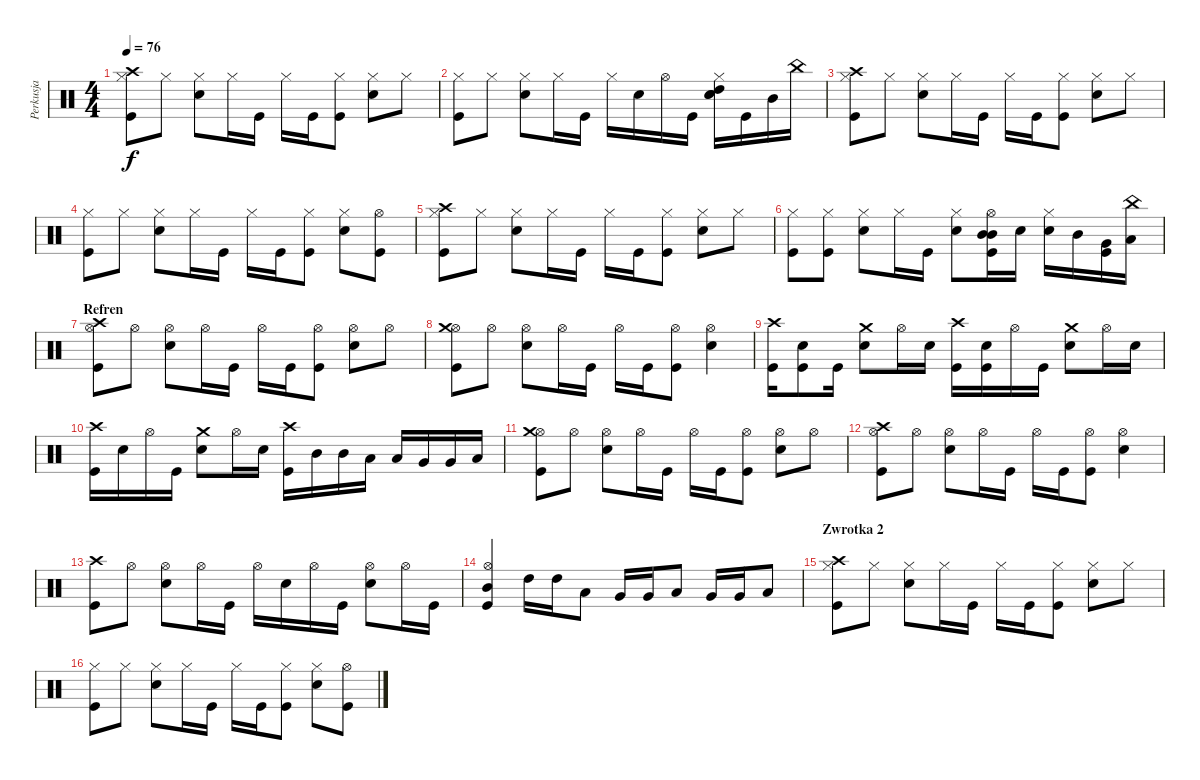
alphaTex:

\track ("Perkusja" "Perkusja") {instrument percussion}
\staff {score}
\articulation defaults
\ts (4 4)
\tempo 76
\clef neutral
\ks c
("Kick (hit)" "Hi-Hat (closed)" "Crash high (hit)").8{dy f} "Hi-Hat (closed)".8 ("Snare (hit) 2" "Hi-Hat (closed)").8 "Hi-Hat (closed)".16 "Kick (hit)".16 "Hi-Hat (closed)".16 "Kick (hit)".16 ("Kick (hit)" "Hi-Hat (closed)").8 ("Snare (hit) 2" "Hi-Hat (closed)").8 "Hi-Hat (closed)".8 |
("Kick (hit)" "Hi-Hat (closed)").8 "Hi-Hat (closed)".8 ("Snare (hit) 2" "Hi-Hat (closed)").8 "Hi-Hat (closed)".16 "Kick (hit)".16 "Hi-Hat (closed)".16 "Snare (hit) 2".16 "Hi-Hat (open)".16 "Kick (hit)".16 ("Snare (hit) 2" "Hi-Hat (closed)" "High Tom (hit)" "Snare (hit) 2").16 "Kick (hit)".16 "Mid Tom (hit)".16 "China (hit)".16 |
("Kick (hit)" "Hi-Hat (closed)" "Crash high (hit)").8 "Hi-Hat (closed)".8 ("Snare (hit) 2" "Hi-Hat (closed)").8 "Hi-Hat (closed)".16 "Kick (hit)".16 "Hi-Hat (closed)".16 "Kick (hit)".16 ("Kick (hit)" "Hi-Hat (closed)").8 ("Snare (hit) 2" "Hi-Hat (closed)").8 "Hi-Hat (closed)".8 |
("Kick (hit)" "Hi-Hat (closed)").8 "Hi-Hat (closed)".8 ("Snare (hit) 2" "Hi-Hat (closed)").8 "Hi-Hat (closed)".16 "Kick (hit)".16 "Hi-Hat (closed)".16 "Kick (hit)".16 ("Kick (hit)" "Hi-Hat (closed)").8 ("Snare (hit) 2" "Hi-Hat (closed)").8 ("Kick (hit)" "Hi-Hat (open)").8 |
("Kick (hit)" "Hi-Hat (closed)" "Crash high (hit)").8 "Hi-Hat (closed)".8 ("Snare (hit) 2" "Hi-Hat (closed)").8 "Hi-Hat (closed)".16 "Kick (hit)".16 "Hi-Hat (closed)".16 "Kick (hit)".16 ("Kick (hit)" "Hi-Hat (closed)").8 ("Snare (hit) 2" "Hi-Hat (closed)").8 "Hi-Hat (closed)".8 |
("Kick (hit)" "Hi-Hat (closed)").8 ("Kick (hit)" "Hi-Hat (closed)").8 ("Snare (hit) 2" "Hi-Hat (closed)").8 "Hi-Hat (closed)".16 "Kick (hit)".16 ("Snare (hit) 2" "Hi-Hat (closed)").8 ("Mid Tom (hit)" "Kick (hit)" "Hi-Hat (open)" "Mid Tom (hit)").16 "Snare (hit) 2".16 ("Snare (hit) 2" "Hi-Hat (closed)").16 "Mid Tom (hit)".16 ("Kick (hit)" "Very Low Tom (hit)").16 ("Low Floor Tom (hit)" "China (hit)").16 |
\section ("" "Refren ")
("Kick (hit)" "Hi-Hat (open)" "Crash high (hit)").8 "Hi-Hat (open)".8 ("Snare (hit) 2" "Hi-Hat (open)").8 "Hi-Hat (open)".16 "Kick (hit)".16 "Hi-Hat (open)".16 "Kick (hit)".16 ("Kick (hit)" "Hi-Hat (open)").8 ("Snare (hit) 2" "Hi-Hat (open)").8 "Hi-Hat (open)".8 |
("Kick (hit)" "Hi-Hat (open)" "Crash medium (hit)").8 "Hi-Hat (open)".8 ("Snare (hit) 2" "Hi-Hat (open)").8 "Hi-Hat (open)".16 "Kick (hit)".16 "Hi-Hat (open)".16 "Kick (hit)".16 ("Kick (hit)" "Hi-Hat (open)").8 ("Snare (hit) 2" "Hi-Hat (open)").4 |
("Kick (hit)" "Crash high (hit)").16 ("Kick (hit)" "Snare (hit) 2").8 "Kick (hit)".16 ("Snare (hit) 2" "Crash medium (hit)").8 "Hi-Hat (open)".16 "Snare (hit) 2".16 ("Kick (hit)" "Crash high (hit)").16 ("Kick (hit)" "Snare (hit) 2").16 "Hi-Hat (open)".16 "Kick (hit)".16 ("Snare (hit) 2" "Crash medium (hit)").8 "Hi-Hat (open)".16 "Snare (hit) 2".16 |
("Kick (hit)" "Crash high (hit)").16 "Snare (hit) 2".16 "Hi-Hat (open)".16 "Kick (hit)".16 ("Snare (hit) 2" "Crash medium (hit)").8 "Hi-Hat (open)".16 "Snare (hit) 2".16 ("Kick (hit)" "Crash high (hit)").16 "Mid Tom (hit)".16 "Mid Tom (hit)".16 "Low Tom (hit)".16 "Low Tom (hit)".16 "Very Low Tom (hit)".16 "Very Low Tom (hit)".16 "Low Floor Tom (hit)".16 |
("Kick (hit)" "Hi-Hat (open)" "Crash medium (hit)").8 "Hi-Hat (open)".8 ("Snare (hit) 2" "Hi-Hat (open)").8 "Hi-Hat (open)".16 "Kick (hit)".16 "Hi-Hat (open)".16 "Kick (hit)".16 ("Kick (hit)" "Hi-Hat (open)").8 ("Snare (hit) 2" "Hi-Hat (open)").8 "Hi-Hat (open)".8 |
("Kick (hit)" "Hi-Hat (open)" "Crash high (hit)").8 "Hi-Hat (open)".8 ("Snare (hit) 2" "Hi-Hat (open)").8 "Hi-Hat (open)".16 "Kick (hit)".16 "Hi-Hat (open)".16 "Kick (hit)".16 ("Kick (hit)" "Hi-Hat (open)").8 ("Snare (hit) 2" "Hi-Hat (open)").4 |
("Kick (hit)" "Crash high (hit)").8 "Hi-Hat (open)".8 ("Snare (hit) 2" "Hi-Hat (open)").8 "Hi-Hat (open)".16 "Kick (hit)".16 "Hi-Hat (open)".16 "Snare (hit) 2".16 "Hi-Hat (open)".16 "Kick (hit)".16 ("Snare (hit) 2" "Hi-Hat (open)").8 "Hi-Hat (open)".16 "Kick (hit)".16 |
("Kick (hit)" "Hi-Hat (open)" "Mid Tom (hit)").4 "High Tom (hit)".16 "High Tom (hit)".16 "Low Tom (hit)".8 "Very Low Tom (hit)".16 "Very Low Tom (hit)".16 "Low Tom (hit)".8 "Very Low Tom (hit)".16 "Very Low Tom (hit)".16 "Low Floor Tom (hit)".8 |
\section ("" "Zwrotka 2")
("Kick (hit)" "Hi-Hat (closed)" "Crash high (hit)").8 "Hi-Hat (closed)".8 ("Snare (hit) 2" "Hi-Hat (closed)").8 "Hi-Hat (closed)".16 "Kick (hit)".16 "Hi-Hat (closed)".16 "Kick (hit)".16 ("Kick (hit)" "Hi-Hat (closed)").8 ("Snare (hit) 2" "Hi-Hat (closed)").8 "Hi-Hat (closed)".8 |
("Kick (hit)" "Hi-Hat (closed)").8 "Hi-Hat (closed)".8 ("Snare (hit) 2" "Hi-Hat (closed)").8 "Hi-Hat (closed)".16 "Kick (hit)".16 "Hi-Hat (closed)".16 "Kick (hit)".16 ("Kick (hit)" "Hi-Hat (closed)").8 ("Snare (hit) 2" "Hi-Hat (closed)").8 ("Kick (hit)" "Hi-Hat (open)").8
